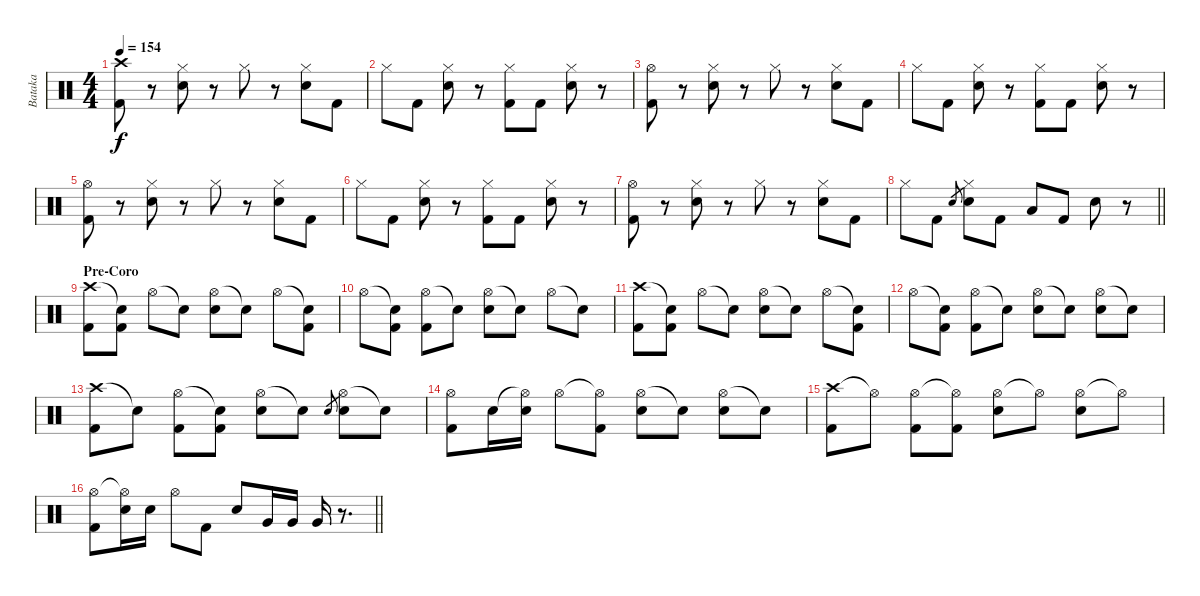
\track ("Bataka" "Bataka") {instrument percussion}
\staff {score}
\articulation defaults
\ts (4 4)
\tempo 154
\clef neutral
\ks c
("Crash high (hit)" "Kick (hit) 2").8{dy f} r.8 ("Hi-Hat (closed)" "Electric Snare (hit)").8 r.8 "Hi-Hat (closed)".8 r.8 ("Hi-Hat (closed)" "Electric Snare (hit)").8 "Kick (hit) 2".8 |
"Hi-Hat (closed)".8 "Kick (hit) 2".8 ("Hi-Hat (closed)" "Electric Snare (hit)").8 r.8 ("Hi-Hat (closed)" "Kick (hit) 2").8 "Kick (hit) 2".8 ("Hi-Hat (closed)" "Electric Snare (hit)").8 r.8 |
("Hi-Hat (open)" "Kick (hit) 2").8 r.8 ("Hi-Hat (closed)" "Electric Snare (hit)").8 r.8 "Hi-Hat (closed)".8 r.8 ("Hi-Hat (closed)" "Electric Snare (hit)").8 "Kick (hit) 2".8 |
"Hi-Hat (closed)".8 "Kick (hit) 2".8 ("Hi-Hat (closed)" "Electric Snare (hit)").8 r.8 ("Hi-Hat (closed)" "Kick (hit) 2").8 "Kick (hit) 2".8 ("Hi-Hat (closed)" "Electric Snare (hit)").8 r.8 |
("Hi-Hat (open)" "Kick (hit) 2").8 r.8 ("Hi-Hat (closed)" "Electric Snare (hit)").8 r.8 "Hi-Hat (closed)".8 r.8 ("Hi-Hat (closed)" "Electric Snare (hit)").8 "Kick (hit) 2".8 |
"Hi-Hat (closed)".8 "Kick (hit) 2".8 ("Hi-Hat (closed)" "Electric Snare (hit)").8 r.8 ("Hi-Hat (closed)" "Kick (hit) 2").8 "Kick (hit) 2".8 ("Hi-Hat (closed)" "Electric Snare (hit)").8 r.8 |
("Hi-Hat (open)" "Kick (hit) 2").8 r.8 ("Hi-Hat (closed)" "Electric Snare (hit)").8 r.8 "Hi-Hat (closed)".8 r.8 ("Hi-Hat (closed)" "Electric Snare (hit)").8 "Kick (hit) 2".8 |
\barLineRight lightlight "Hi-Hat (closed)".8 "Kick (hit) 2".8 "Electric Snare (hit)".8{gr}
("Hi-Hat (closed)" "Electric Snare (hit)").8 "Kick (hit) 2".8 "Low Floor Tom (hit)".8 "Kick (hit) 2".8 "Electric Snare (hit)".8 r.8 |
\section ("" "Pre-Coro")
("Crash high (hit)" "Kick (hit) 2").8 ("Snare (hit)"{t} "Kick (hit) 2").8 "Hi-Hat (open)".8 "Snare (hit)"{t}.8 ("Hi-Hat (open)" "Electric Snare (hit)").8 "Snare (hit)"{t}.8 "Hi-Hat (open)".8 ("Snare (hit)"{t} "Kick (hit) 2").8 |
"Hi-Hat (open)".8 ("Snare (hit)"{t} "Kick (hit) 2").8 ("Hi-Hat (open)" "Kick (hit) 2").8 "Snare (hit)"{t}.8 ("Hi-Hat (open)" "Electric Snare (hit)").8 "Snare (hit)"{t}.8 "Hi-Hat (open)".8 "Snare (hit)"{t}.8 |
("Crash high (hit)" "Kick (hit) 2").8 ("Snare (hit)"{t} "Kick (hit) 2").8 "Hi-Hat (open)".8 "Snare (hit)"{t}.8 ("Hi-Hat (open)" "Electric Snare (hit)").8 "Snare (hit)"{t}.8 "Hi-Hat (open)".8 ("Snare (hit)"{t} "Kick (hit) 2").8 |
"Hi-Hat (open)".8 ("Snare (hit)"{t} "Kick (hit) 2").8 ("Hi-Hat (open)" "Kick (hit) 2").8 "Snare (hit)"{t}.8 ("Hi-Hat (open)" "Electric Snare (hit)").8 "Snare (hit)"{t}.8 ("Hi-Hat (open)" "Electric Snare (hit)").8 "Snare (hit)"{t}.8 |
("Crash high (hit)" "Kick (hit) 2").8 "Snare (hit)"{t}.8 ("Hi-Hat (open)" "Kick (hit) 2").8 ("Snare (hit)"{t} "Kick (hit) 2").8 ("Hi-Hat (open)" "Electric Snare (hit)").8 "Snare (hit)"{t}.8 "Electric Snare (hit)".8{gr} ("Hi-Hat (open)" "Electric Snare (hit)").8 "Snare (hit)"{t}.8 |
("Hi-Hat (open)" "Kick (hit) 2").8 "Electric Snare (hit)".16 ("Hi-Hat (open)"{t} "Electric Snare (hit)").16 "Hi-Hat (open)".8 ("Hi-Hat (open)"{t} "Kick (hit) 2").8 ("Hi-Hat (open)" "Electric Snare (hit)").8 "Snare (hit)"{t}.8 ("Hi-Hat (open)" "Electric Snare (hit)").8 "Snare (hit)"{t}.8 |
("Crash high (hit)" "Kick (hit) 2").8 "Hi-Hat (open)"{t}.8 ("Hi-Hat (open)" "Kick (hit) 2").8 ("Hi-Hat (open)"{t} "Kick (hit) 2").8 ("Hi-Hat (open)" "Electric Snare (hit)").8 "Hi-Hat (open)"{t}.8 ("Hi-Hat (open)" "Electric Snare (hit)").8 "Hi-Hat (open)"{t}.8 |
\barLineRight lightlight
("Hi-Hat (open)" "Kick (hit) 2").8 ("Hi-Hat (open)"{t} "Electric Snare (hit)").16 "Electric Snare (hit)".16 "Hi-Hat (open)".8 "Kick (hit) 2".8 "Electric Snare (hit)".8 "Very Low Tom (hit)".16 "Very Low Tom (hit)".16 "Very Low Tom (hit)".16 r.8{d}
